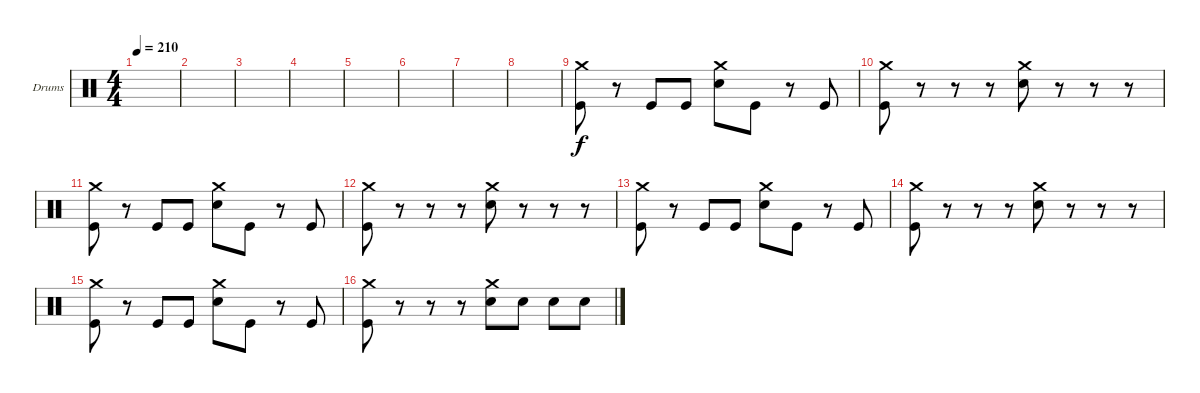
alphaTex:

\defaultSystemsLayout 4
\bracketExtendMode groupsimilarinstruments
\firstSystemTrackNameOrientation horizontal
\otherSystemsTrackNameOrientation horizontal
\track ("Dan Johnson (Drums)" "Drums") {instrument percussion}
\staff {score}
\articulation defaults
\ts (4 4)
\tempo 210
\clef neutral
\ks c
|
|
|
|
|
|
|
|
("Kick (hit)" "Crash medium (hit)").8 r.8 "Kick (hit)".8 "Kick (hit)".8 ("Snare (hit) 2" "Crash medium (hit)").8 "Kick (hit)".8 r.8 "Kick (hit)".8 |
("Kick (hit)" "Crash medium (hit)").8 r.8 r.8 r.8 ("Snare (hit) 2" "Crash medium (hit)").8 r.8 r.8 r.8 |
("Kick (hit)" "Crash medium (hit)").8 r.8 "Kick (hit)".8 "Kick (hit)".8 ("Snare (hit) 2" "Crash medium (hit)").8 "Kick (hit)".8 r.8 "Kick (hit)".8 |
("Kick (hit)" "Crash medium (hit)").8 r.8 r.8 r.8 ("Snare (hit) 2" "Crash medium (hit)").8 r.8 r.8 r.8 |
("Kick (hit)" "Crash medium (hit)").8 r.8 "Kick (hit)".8 "Kick (hit)".8 ("Snare (hit) 2" "Crash medium (hit)").8 "Kick (hit)".8 r.8 "Kick (hit)".8 |
("Kick (hit)" "Crash medium (hit)").8 r.8 r.8 r.8 ("Snare (hit) 2" "Crash medium (hit)").8 r.8 r.8 r.8 |
("Kick (hit)" "Crash medium (hit)").8 r.8 "Kick (hit)".8 "Kick (hit)".8 ("Snare (hit) 2" "Crash medium (hit)").8 "Kick (hit)".8 r.8 "Kick (hit)".8 |
("Kick (hit)" "Crash medium (hit)").8 r.8 r.8 r.8 ("Snare (hit) 2" "Crash medium (hit)").8 "Snare (hit) 2".8 "Snare (hit) 2".8 "Snare (hit) 2".8
